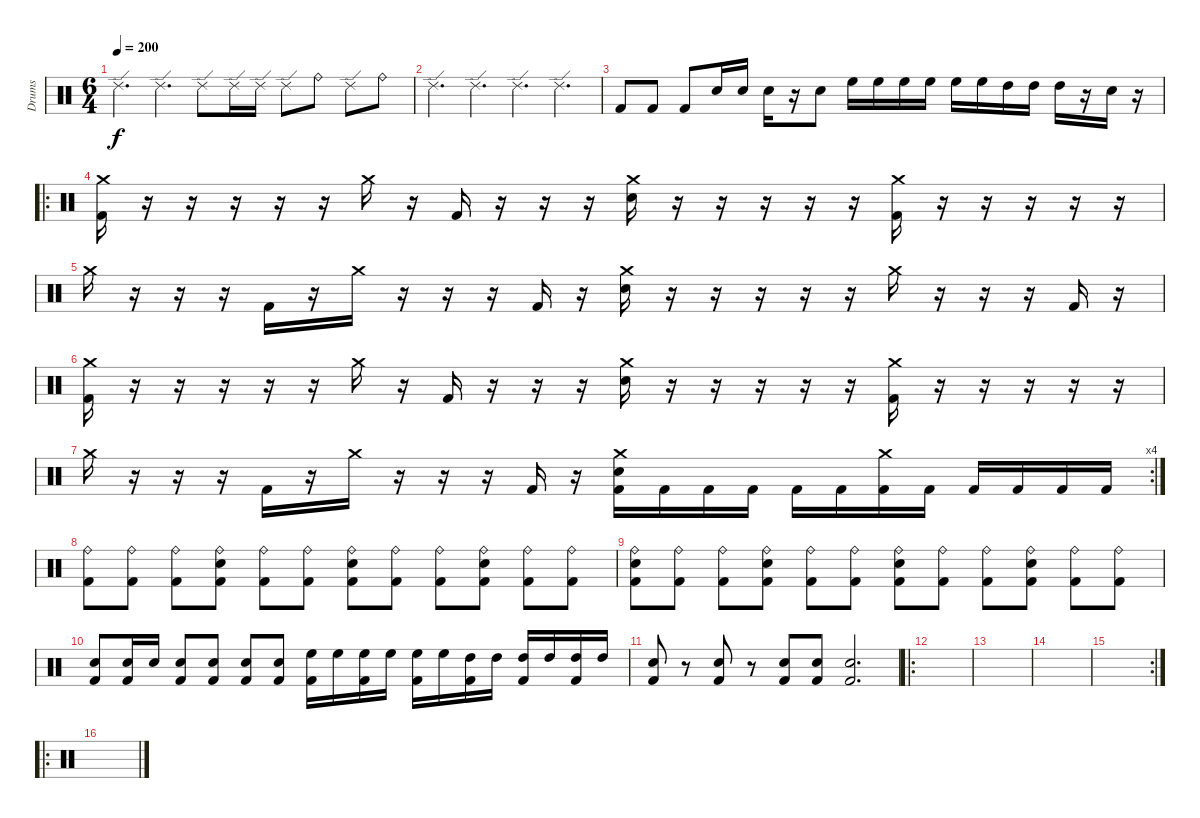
\track ("Drums" "Drums") {mute instrument percussion}
\staff {score}
\articulation defaults
\ts (6 4)
\tempo 200
\clef neutral
\ks c "Ride (edge) 2".4{d dy f} "Ride (edge) 2".4{d} "Ride (edge) 2".8 "Ride (edge) 2".16 "Ride (edge) 2".16 "Ride (edge) 2".8 "Ride (bell)".8 "Ride (edge) 2".8 "Ride (bell)".8
|
"Ride (edge) 2".4{d} "Ride (edge) 2".4{d} "Ride (edge) 2".4{d} "Ride (edge) 2".4{d} |
"Kick (hit) 2".8 "Kick (hit) 2".8 "Kick (hit) 2".8 "Electric Snare (hit)".16 "Electric Snare (hit)".16 "Electric Snare (hit)".16 r.16 "Electric Snare (hit)".8 "High Floor Tom (hit)".16 "High Floor Tom (hit)".16 "High Floor Tom (hit)".16 "High Floor Tom (hit)".16 "High Floor Tom (hit)".16 "High Floor Tom (hit)".16 "High Tom (hit)".16 "High Tom (hit)".16 "High Tom (hit)".16 r.16 "Electric Snare (hit)".16 r.16 |
\ro
("Crash medium (hit)" "Kick (hit) 2").16 r.16 r.16 r.16 r.16 r.16 "Crash medium (hit)".16 r.16 "Kick (hit) 2".16 r.16 r.16 r.16 ("Crash medium (hit)" "Electric Snare (hit)").16 r.16 r.16 r.16 r.16 r.16 ("Crash medium (hit)" "Kick (hit) 2").16 r.16 r.16 r.16 r.16 r.16 |
"Crash medium (hit)".16 r.16 r.16 r.16 "Kick (hit) 2".16 r.16 "Crash medium (hit)".16 r.16 r.16 r.16 "Kick (hit) 2".16 r.16 ("Crash medium (hit)" "Electric Snare (hit)").16 r.16 r.16 r.16 r.16 r.16 "Crash medium (hit)".16 r.16 r.16{volume 0} r.16 "Kick (hit) 2".16 r.16 |
("Crash medium (hit)" "Kick (hit) 2").16{volume 13} r.16 r.16 r.16 r.16 r.16 "Crash medium (hit)".16 r.16 "Kick (hit) 2".16 r.16 r.16 r.16 ("Crash medium (hit)" "Electric Snare (hit)").16 r.16 r.16 r.16 r.16 r.16 ("Crash medium (hit)" "Kick (hit) 2").16 r.16 r.16 r.16 r.16 r.16 |
\rc 4 "Crash medium (hit)".16
r.16 r.16 r.16 "Kick (hit) 2".16 r.16 "Crash medium (hit)".16 r.16 r.16 r.16 "Kick (hit) 2".16 r.16 ("Crash medium (hit)" "Electric Snare (hit)" "Kick (hit) 2").16 "Kick (hit) 2".16 "Kick (hit) 2".16 "Kick (hit) 2".16 "Kick (hit) 2".16 "Kick (hit) 2".16 ("Crash medium (hit)" "Kick (hit) 2").16 "Kick (hit) 2".16 "Kick (hit) 2".16 "Kick (hit) 2".16 "Kick (hit) 2".16 "Kick (hit) 2".16 |
("Ride (bell)" "Kick (hit) 2").8 ("Ride (bell)" "Kick (hit) 2").8 ("Ride (bell)" "Kick (hit) 2").8 ("Ride (bell)" "Electric Snare (hit)" "Kick (hit) 2").8 ("Ride (bell)" "Kick (hit) 2").8 ("Ride (bell)" "Kick (hit) 2").8 ("Ride (bell)" "Electric Snare (hit)" "Kick (hit) 2").8 ("Ride (bell)" "Kick (hit) 2").8 ("Ride (bell)" "Kick (hit) 2").8 ("Ride (bell)" "Electric Snare (hit)" "Kick (hit) 2").8 ("Ride (bell)" "Kick (hit) 2").8 ("Ride (bell)" "Kick (hit) 2").8 |
("Ride (bell)" "Electric Snare (hit)" "Kick (hit) 2").8 ("Ride (bell)" "Kick (hit) 2").8 ("Ride (bell)" "Kick (hit) 2").8 ("Ride (bell)" "Electric Snare (hit)" "Kick (hit) 2").8 ("Ride (bell)" "Kick (hit) 2").8 ("Ride (bell)" "Kick (hit) 2").8 ("Ride (bell)" "Electric Snare (hit)" "Kick (hit) 2").8 ("Ride (bell)" "Kick (hit) 2").8 ("Ride (bell)" "Kick (hit) 2").8 ("Ride (bell)" "Electric Snare (hit)" "Kick (hit) 2").8 ("Ride (bell)" "Kick (hit) 2").8 ("Ride (bell)" "Kick (hit) 2").8 |
("Electric Snare (hit)" "Kick (hit) 2").8 ("Electric Snare (hit)" "Kick (hit) 2").16 "Electric Snare (hit)".16 ("Electric Snare (hit)" "Kick (hit) 2").8 ("Electric Snare (hit)" "Kick (hit) 2").8 ("Electric Snare (hit)" "Kick (hit) 2").8 ("Electric Snare (hit)" "Kick (hit) 2").8 ("High Floor Tom (hit)" "Kick (hit) 2").16 "High Floor Tom (hit)".16 ("High Floor Tom (hit)" "Kick (hit) 2").16 "High Floor Tom (hit)".16 ("High Floor Tom (hit)" "Kick (hit) 2").16 "High Floor Tom (hit)".16 ("High Tom (hit)" "Kick (hit) 2").16 "High Tom (hit)".16 ("High Tom (hit)" "Kick (hit) 2").16 "High Tom (hit)".16 ("High Tom (hit)" "Kick (hit) 2").16 "High Tom (hit)".16 |
("Electric Snare (hit)" "Kick (hit) 2").8 r.8 ("Electric Snare (hit)" "Kick (hit) 2").8 r.8 ("Electric Snare (hit)" "Kick (hit) 2").8 ("Electric Snare (hit)" "Kick (hit) 2").8 ("Electric Snare (hit)" "Kick (hit) 2").2{d} |
\ro
|
|
|
\rc 2
|
\ro
